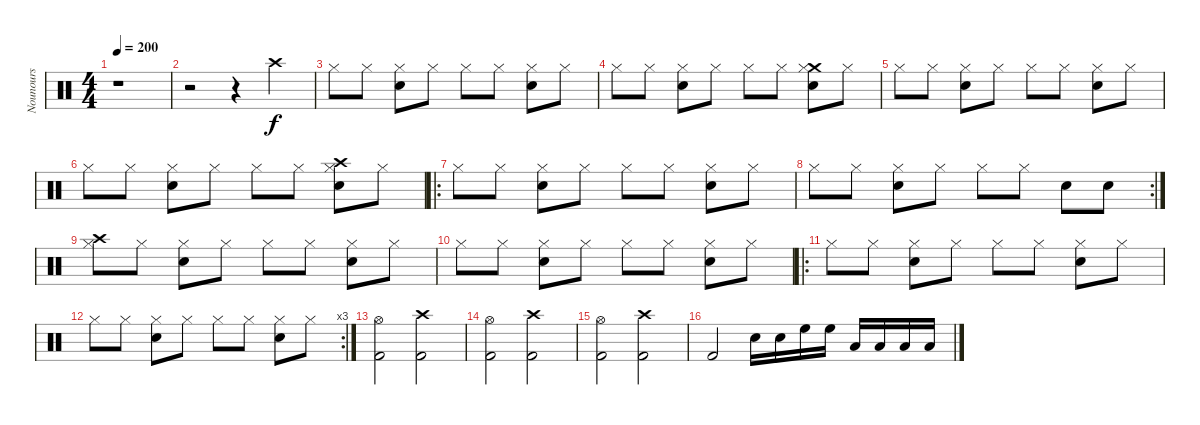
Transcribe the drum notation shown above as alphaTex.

\track ("Nounours" "Nounours") {instrument percussion}
\staff {score}
\articulation defaults
\ts (4 4)
\tempo 200
\clef neutral
\ks c
r.1{dy f} |
r.2 r.4 "Crash high (hit)".4 |
"Hi-Hat (closed)".8 "Hi-Hat (closed)".8 ("Hi-Hat (closed)" "Snare (hit) 2").8 "Hi-Hat (closed)".8 "Hi-Hat (closed)".8 "Hi-Hat (closed)".8 ("Hi-Hat (closed)" "Snare (hit) 2").8 "Hi-Hat (closed)".8 |
"Hi-Hat (closed)".8 "Hi-Hat (closed)".8 ("Hi-Hat (closed)" "Snare (hit) 2").8 "Hi-Hat (closed)".8 "Hi-Hat (closed)".8 "Hi-Hat (closed)".8 ("Crash medium (hit)" "Hi-Hat (closed)" "Snare (hit) 2").8 "Hi-Hat (closed)".8 |
"Hi-Hat (closed)".8 "Hi-Hat (closed)".8 ("Hi-Hat (closed)" "Snare (hit) 2").8 "Hi-Hat (closed)".8 "Hi-Hat (closed)".8 "Hi-Hat (closed)".8 ("Hi-Hat (closed)" "Snare (hit) 2").8 "Hi-Hat (closed)".8 |
"Hi-Hat (closed)".8 "Hi-Hat (closed)".8 ("Hi-Hat (closed)" "Snare (hit) 2").8 "Hi-Hat (closed)".8 "Hi-Hat (closed)".8 "Hi-Hat (closed)".8 ("Crash high (hit)" "Hi-Hat (closed)" "Snare (hit) 2").8 "Hi-Hat (closed)".8 |
\ro "Hi-Hat (closed)".8 "Hi-Hat (closed)".8
("Hi-Hat (closed)" "Snare (hit) 2").8 "Hi-Hat (closed)".8 "Hi-Hat (closed)".8 "Hi-Hat (closed)".8 ("Hi-Hat (closed)" "Snare (hit) 2").8 "Hi-Hat (closed)".8 |
\rc 2 "Hi-Hat (closed)".8 "Hi-Hat (closed)".8
("Hi-Hat (closed)" "Snare (hit) 2").8 "Hi-Hat (closed)".8 "Hi-Hat (closed)".8 "Hi-Hat (closed)".8 "Snare (hit) 2".8 "Snare (hit) 2".8 |
("Crash high (hit)" "Hi-Hat (closed)").8 "Hi-Hat (closed)".8 ("Hi-Hat (closed)" "Snare (hit) 2").8 "Hi-Hat (closed)".8 "Hi-Hat (closed)".8 "Hi-Hat (closed)".8 ("Hi-Hat (closed)" "Snare (hit) 2").8 "Hi-Hat (closed)".8 |
"Hi-Hat (closed)".8 "Hi-Hat (closed)".8 ("Hi-Hat (closed)" "Snare (hit) 2").8 "Hi-Hat (closed)".8 "Hi-Hat (closed)".8 "Hi-Hat (closed)".8 ("Hi-Hat (closed)" "Snare (hit) 2").8 "Hi-Hat (closed)".8 |
\ro "Hi-Hat (closed)".8 "Hi-Hat (closed)".8
("Hi-Hat (closed)" "Snare (hit) 2").8 "Hi-Hat (closed)".8 "Hi-Hat (closed)".8 "Hi-Hat (closed)".8 ("Hi-Hat (closed)" "Snare (hit) 2").8 "Hi-Hat (closed)".8 |
\rc 3 "Hi-Hat (closed)".8 "Hi-Hat (closed)".8
("Hi-Hat (closed)" "Snare (hit) 2").8 "Hi-Hat (closed)".8 "Hi-Hat (closed)".8 "Hi-Hat (closed)".8 ("Hi-Hat (closed)" "Snare (hit) 2").8 "Hi-Hat (closed)".8 |
("Hi-Hat (open)" "Kick (hit) 2").2 ("Crash high (hit)" "Kick (hit) 2").2 |
("Hi-Hat (open)" "Kick (hit) 2").2 ("Crash high (hit)" "Kick (hit) 2").2 |
("Hi-Hat (open)" "Kick (hit) 2").2 ("Crash high (hit)" "Kick (hit) 2").2 |
"Kick (hit) 2".2 "Snare (hit) 2".16 "Snare (hit) 2".16 "High Floor Tom (hit)".16 "High Floor Tom (hit)".16 "Low Tom (hit)".16 "Low Tom (hit)".16 "Low Floor Tom (hit)".16 "Low Floor Tom (hit)".16
